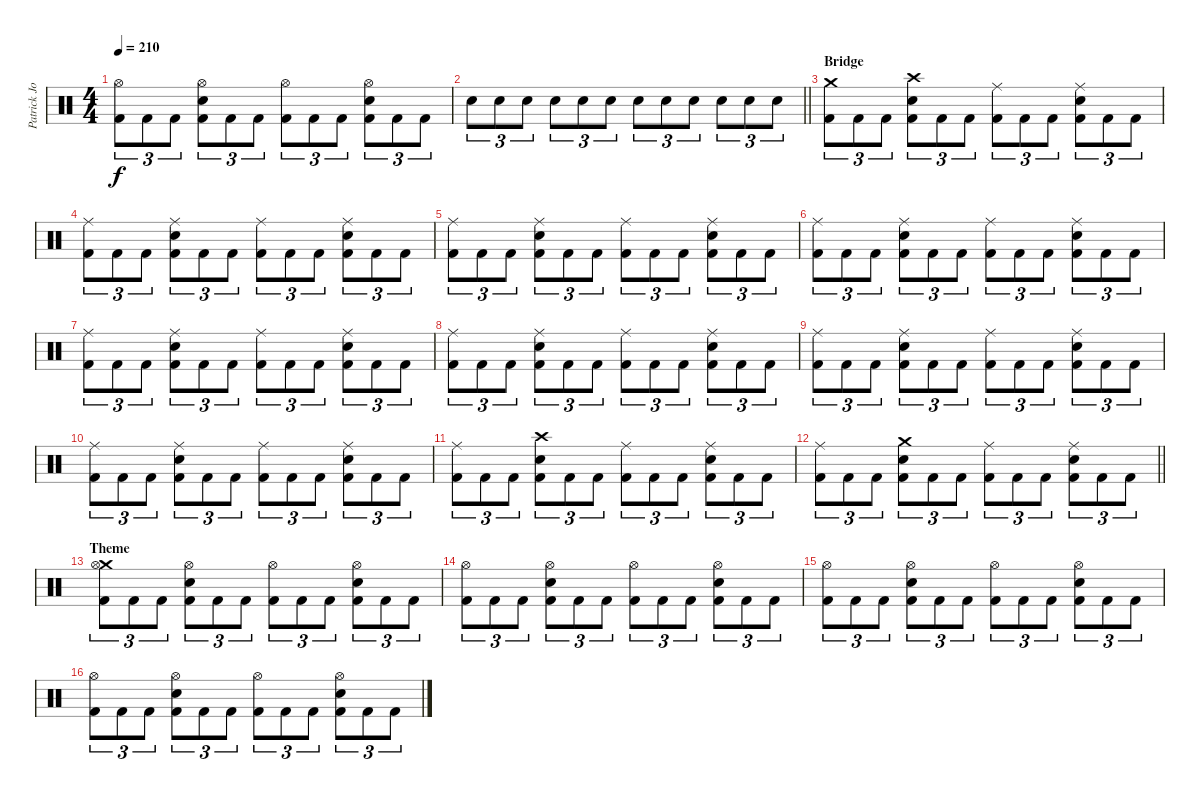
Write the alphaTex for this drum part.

\track ("Patrick Johansson" "Patrick Jo") {instrument percussion}
\staff {score}
\articulation defaults
\ts (4 4)
\tempo 210
\clef neutral
\ks c
("Hi-Hat (open)" "Kick (hit) 2").8{tu (3 2) dy f} "Kick (hit) 2".8{tu (3 2)} "Kick (hit) 2".8{tu (3 2)} ("Hi-Hat (open)" "Snare (hit) 2" "Kick (hit) 2").8{tu (3 2)} "Kick (hit) 2".8{tu (3 2)} "Kick (hit) 2".8{tu (3 2)} ("Hi-Hat (open)" "Kick (hit) 2").8{tu (3 2)} "Kick (hit) 2".8{tu (3 2)} "Kick (hit) 2".8{tu (3 2)} ("Hi-Hat (open)" "Snare (hit) 2" "Kick (hit) 2").8{tu (3 2)} "Kick (hit) 2".8{tu (3 2)} "Kick (hit) 2".8{tu (3 2)} |
\barLineRight lightlight "Snare (hit) 2".8{tu (3 2)} "Snare (hit) 2".8{tu (3 2)} "Snare (hit) 2".8{tu (3 2)} "Snare (hit) 2".8{tu (3 2)} "Snare (hit) 2".8{tu (3 2)} "Snare (hit) 2".8{tu (3 2)} "Snare (hit) 2".8{tu (3 2)} "Snare (hit) 2".8{tu (3 2)} "Snare (hit) 2".8{tu (3 2)} "Snare (hit) 2".8{tu (3 2)} "Snare (hit) 2".8{tu (3 2)} "Snare (hit) 2".8{tu (3 2)}
|
\section ("" "Bridge")
("Crash medium (hit)" "Kick (hit) 2").8{tu (3 2)} "Kick (hit) 2".8{tu (3 2)} "Kick (hit) 2".8{tu (3 2)} ("Crash high (hit)" "Snare (hit) 2" "Kick (hit) 2").8{tu (3 2)} "Kick (hit) 2".8{tu (3 2)} "Kick (hit) 2".8{tu (3 2)} ("Ride (middle)" "Kick (hit) 2").8{tu (3 2)} "Kick (hit) 2".8{tu (3 2)} "Kick (hit) 2".8{tu (3 2)} ("Ride (middle)" "Snare (hit) 2" "Kick (hit) 2").8{tu (3 2)} "Kick (hit) 2".8{tu (3 2)} "Kick (hit) 2".8{tu (3 2)} |
("Ride (middle)" "Kick (hit) 2").8{tu (3 2)} "Kick (hit) 2".8{tu (3 2)} "Kick (hit) 2".8{tu (3 2)} ("Ride (middle)" "Snare (hit) 2" "Kick (hit) 2").8{tu (3 2)} "Kick (hit) 2".8{tu (3 2)} "Kick (hit) 2".8{tu (3 2)} ("Ride (middle)" "Kick (hit) 2").8{tu (3 2)} "Kick (hit) 2".8{tu (3 2)} "Kick (hit) 2".8{tu (3 2)} ("Ride (middle)" "Snare (hit) 2" "Kick (hit) 2").8{tu (3 2)} "Kick (hit) 2".8{tu (3 2)} "Kick (hit) 2".8{tu (3 2)} |
("Ride (middle)" "Kick (hit) 2").8{tu (3 2)} "Kick (hit) 2".8{tu (3 2)} "Kick (hit) 2".8{tu (3 2)} ("Ride (middle)" "Snare (hit) 2" "Kick (hit) 2").8{tu (3 2)} "Kick (hit) 2".8{tu (3 2)} "Kick (hit) 2".8{tu (3 2)} ("Ride (middle)" "Kick (hit) 2").8{tu (3 2)} "Kick (hit) 2".8{tu (3 2)} "Kick (hit) 2".8{tu (3 2)} ("Ride (middle)" "Snare (hit) 2" "Kick (hit) 2").8{tu (3 2)} "Kick (hit) 2".8{tu (3 2)} "Kick (hit) 2".8{tu (3 2)} |
("Ride (middle)" "Kick (hit) 2").8{tu (3 2)} "Kick (hit) 2".8{tu (3 2)} "Kick (hit) 2".8{tu (3 2)} ("Ride (middle)" "Snare (hit) 2" "Kick (hit) 2").8{tu (3 2)} "Kick (hit) 2".8{tu (3 2)} "Kick (hit) 2".8{tu (3 2)} ("Ride (middle)" "Kick (hit) 2").8{tu (3 2)} "Kick (hit) 2".8{tu (3 2)} "Kick (hit) 2".8{tu (3 2)} ("Ride (middle)" "Snare (hit) 2" "Kick (hit) 2").8{tu (3 2)} "Kick (hit) 2".8{tu (3 2)} "Kick (hit) 2".8{tu (3 2)} |
("Ride (middle)" "Kick (hit) 2").8{tu (3 2)} "Kick (hit) 2".8{tu (3 2)} "Kick (hit) 2".8{tu (3 2)} ("Ride (middle)" "Snare (hit) 2" "Kick (hit) 2").8{tu (3 2)} "Kick (hit) 2".8{tu (3 2)} "Kick (hit) 2".8{tu (3 2)} ("Ride (middle)" "Kick (hit) 2").8{tu (3 2)} "Kick (hit) 2".8{tu (3 2)} "Kick (hit) 2".8{tu (3 2)} ("Ride (middle)" "Snare (hit) 2" "Kick (hit) 2").8{tu (3 2)} "Kick (hit) 2".8{tu (3 2)} "Kick (hit) 2".8{tu (3 2)} |
("Ride (middle)" "Kick (hit) 2").8{tu (3 2)} "Kick (hit) 2".8{tu (3 2)} "Kick (hit) 2".8{tu (3 2)} ("Ride (middle)" "Snare (hit) 2" "Kick (hit) 2").8{tu (3 2)} "Kick (hit) 2".8{tu (3 2)} "Kick (hit) 2".8{tu (3 2)} ("Ride (middle)" "Kick (hit) 2").8{tu (3 2)} "Kick (hit) 2".8{tu (3 2)} "Kick (hit) 2".8{tu (3 2)} ("Ride (middle)" "Snare (hit) 2" "Kick (hit) 2").8{tu (3 2)} "Kick (hit) 2".8{tu (3 2)} "Kick (hit) 2".8{tu (3 2)} |
("Ride (middle)" "Kick (hit) 2").8{tu (3 2)} "Kick (hit) 2".8{tu (3 2)} "Kick (hit) 2".8{tu (3 2)} ("Ride (middle)" "Snare (hit) 2" "Kick (hit) 2").8{tu (3 2)} "Kick (hit) 2".8{tu (3 2)} "Kick (hit) 2".8{tu (3 2)} ("Ride (middle)" "Kick (hit) 2").8{tu (3 2)} "Kick (hit) 2".8{tu (3 2)} "Kick (hit) 2".8{tu (3 2)} ("Ride (middle)" "Snare (hit) 2" "Kick (hit) 2").8{tu (3 2)} "Kick (hit) 2".8{tu (3 2)} "Kick (hit) 2".8{tu (3 2)} |
("Ride (middle)" "Kick (hit) 2").8{tu (3 2)} "Kick (hit) 2".8{tu (3 2)} "Kick (hit) 2".8{tu (3 2)} ("Ride (middle)" "Snare (hit) 2" "Kick (hit) 2").8{tu (3 2)} "Kick (hit) 2".8{tu (3 2)} "Kick (hit) 2".8{tu (3 2)} ("Ride (middle)" "Kick (hit) 2").8{tu (3 2)} "Kick (hit) 2".8{tu (3 2)} "Kick (hit) 2".8{tu (3 2)} ("Ride (middle)" "Snare (hit) 2" "Kick (hit) 2").8{tu (3 2)} "Kick (hit) 2".8{tu (3 2)} "Kick (hit) 2".8{tu (3 2)} |
("Ride (middle)" "Kick (hit) 2").8{tu (3 2)} "Kick (hit) 2".8{tu (3 2)} "Kick (hit) 2".8{tu (3 2)} ("Crash high (hit)" "Snare (hit) 2" "Kick (hit) 2").8{tu (3 2)} "Kick (hit) 2".8{tu (3 2)} "Kick (hit) 2".8{tu (3 2)} ("Ride (middle)" "Kick (hit) 2").8{tu (3 2)} "Kick (hit) 2".8{tu (3 2)} "Kick (hit) 2".8{tu (3 2)} ("Ride (middle)" "Snare (hit) 2" "Kick (hit) 2").8{tu (3 2)} "Kick (hit) 2".8{tu (3 2)} "Kick (hit) 2".8{tu (3 2)} |
\barLineRight lightlight
("Ride (middle)" "Kick (hit) 2").8{tu (3 2)} "Kick (hit) 2".8{tu (3 2)} "Kick (hit) 2".8{tu (3 2)} ("Crash medium (hit)" "Snare (hit) 2" "Kick (hit) 2").8{tu (3 2)} "Kick (hit) 2".8{tu (3 2)} "Kick (hit) 2".8{tu (3 2)} ("Ride (middle)" "Kick (hit) 2").8{tu (3 2)} "Kick (hit) 2".8{tu (3 2)} "Kick (hit) 2".8{tu (3 2)} ("Ride (middle)" "Snare (hit) 2" "Kick (hit) 2").8{tu (3 2)} "Kick (hit) 2".8{tu (3 2)} "Kick (hit) 2".8{tu (3 2)} |
\section ("" "Theme")
("Crash medium (hit)" "Hi-Hat (open)" "Kick (hit) 2").8{tu (3 2)} "Kick (hit) 2".8{tu (3 2)} "Kick (hit) 2".8{tu (3 2)} ("Hi-Hat (open)" "Snare (hit) 2" "Kick (hit) 2").8{tu (3 2)} "Kick (hit) 2".8{tu (3 2)} "Kick (hit) 2".8{tu (3 2)} ("Hi-Hat (open)" "Kick (hit) 2").8{tu (3 2)} "Kick (hit) 2".8{tu (3 2)} "Kick (hit) 2".8{tu (3 2)} ("Hi-Hat (open)" "Snare (hit) 2" "Kick (hit) 2").8{tu (3 2)} "Kick (hit) 2".8{tu (3 2)} "Kick (hit) 2".8{tu (3 2)} |
("Hi-Hat (open)" "Kick (hit) 2").8{tu (3 2)} "Kick (hit) 2".8{tu (3 2)} "Kick (hit) 2".8{tu (3 2)} ("Hi-Hat (open)" "Snare (hit) 2" "Kick (hit) 2").8{tu (3 2)} "Kick (hit) 2".8{tu (3 2)} "Kick (hit) 2".8{tu (3 2)} ("Hi-Hat (open)" "Kick (hit) 2").8{tu (3 2)} "Kick (hit) 2".8{tu (3 2)} "Kick (hit) 2".8{tu (3 2)} ("Hi-Hat (open)" "Snare (hit) 2" "Kick (hit) 2").8{tu (3 2)} "Kick (hit) 2".8{tu (3 2)} "Kick (hit) 2".8{tu (3 2)} |
("Hi-Hat (open)" "Kick (hit) 2").8{tu (3 2)} "Kick (hit) 2".8{tu (3 2)} "Kick (hit) 2".8{tu (3 2)} ("Hi-Hat (open)" "Snare (hit) 2" "Kick (hit) 2").8{tu (3 2)} "Kick (hit) 2".8{tu (3 2)} "Kick (hit) 2".8{tu (3 2)} ("Hi-Hat (open)" "Kick (hit) 2").8{tu (3 2)} "Kick (hit) 2".8{tu (3 2)} "Kick (hit) 2".8{tu (3 2)} ("Hi-Hat (open)" "Snare (hit) 2" "Kick (hit) 2").8{tu (3 2)} "Kick (hit) 2".8{tu (3 2)} "Kick (hit) 2".8{tu (3 2)} |
("Hi-Hat (open)" "Kick (hit) 2").8{tu (3 2)} "Kick (hit) 2".8{tu (3 2)} "Kick (hit) 2".8{tu (3 2)} ("Hi-Hat (open)" "Snare (hit) 2" "Kick (hit) 2").8{tu (3 2)} "Kick (hit) 2".8{tu (3 2)} "Kick (hit) 2".8{tu (3 2)} ("Hi-Hat (open)" "Kick (hit) 2").8{tu (3 2)} "Kick (hit) 2".8{tu (3 2)} "Kick (hit) 2".8{tu (3 2)} ("Hi-Hat (open)" "Snare (hit) 2" "Kick (hit) 2").8{tu (3 2)} "Kick (hit) 2".8{tu (3 2)} "Kick (hit) 2".8{tu (3 2)}
